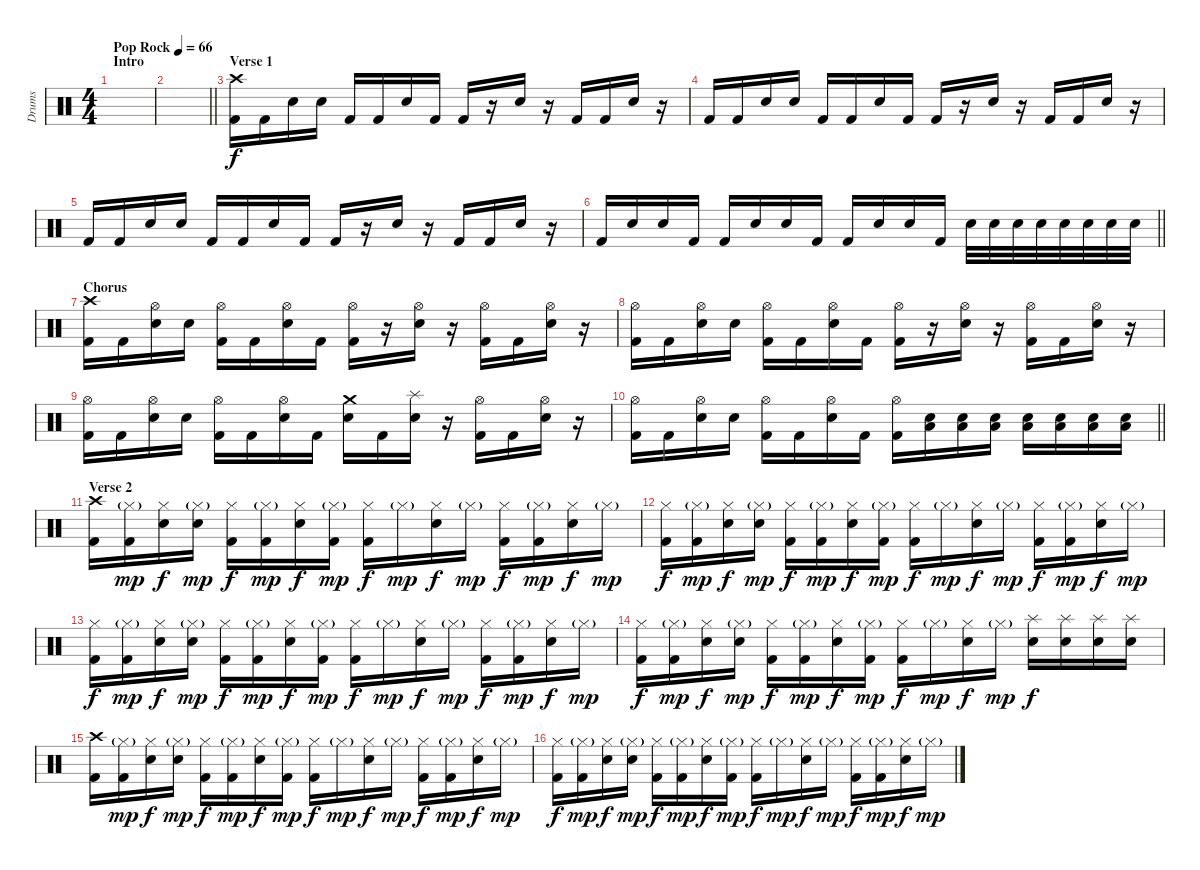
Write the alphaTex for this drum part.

\track ("Drums" "Drums") {instrument percussion}
\staff {score}
\articulation defaults
\ts (4 4)
\section ("" "Intro")
\tempo (66 "Pop Rock")
\clef neutral
\ks c
|
\barLineRight lightlight
|
\section ("" "Verse 1")
("Crash high (hit)" "Kick (hit) 2").16 "Kick (hit) 2".16 "Snare (hit) 2".16 "Snare (hit) 2".16 "Kick (hit) 2".16 "Kick (hit) 2".16 "Snare (hit) 2".16 "Kick (hit) 2".16 "Kick (hit) 2".16 r.16 "Snare (hit) 2".16 r.16 "Kick (hit) 2".16 "Kick (hit) 2".16 "Snare (hit) 2".16 r.16 |
"Kick (hit) 2".16 "Kick (hit) 2".16 "Snare (hit) 2".16 "Snare (hit) 2".16 "Kick (hit) 2".16 "Kick (hit) 2".16 "Snare (hit) 2".16 "Kick (hit) 2".16 "Kick (hit) 2".16 r.16 "Snare (hit) 2".16 r.16 "Kick (hit) 2".16 "Kick (hit) 2".16 "Snare (hit) 2".16 r.16 |
"Kick (hit) 2".16 "Kick (hit) 2".16 "Snare (hit) 2".16 "Snare (hit) 2".16 "Kick (hit) 2".16 "Kick (hit) 2".16 "Snare (hit) 2".16 "Kick (hit) 2".16 "Kick (hit) 2".16 r.16 "Snare (hit) 2".16 r.16 "Kick (hit) 2".16 "Kick (hit) 2".16 "Snare (hit) 2".16 r.16 |
\barLineRight lightlight "Kick (hit) 2".16 "Snare (hit) 2".16 "Snare (hit) 2".16 "Kick (hit) 2".16 "Kick (hit) 2".16 "Snare (hit) 2".16 "Snare (hit) 2".16 "Kick (hit) 2".16 "Kick (hit) 2".16 "Snare (hit) 2".16 "Snare (hit) 2".16 "Kick (hit) 2".16 "Snare (hit) 2".32 "Snare (hit) 2".32 "Snare (hit) 2".32 "Snare (hit) 2".32 "Snare (hit) 2".32 "Snare (hit) 2".32 "Snare (hit) 2".32 "Snare (hit) 2".32
|
\section ("" "Chorus")
("Crash high (hit)" "Kick (hit) 2").16 "Kick (hit) 2".16 ("Hi-Hat (open)" "Snare (hit) 2").16 "Snare (hit) 2".16 ("Hi-Hat (open)" "Kick (hit) 2").16 "Kick (hit) 2".16 ("Hi-Hat (open)" "Snare (hit) 2").16 "Kick (hit) 2".16 ("Hi-Hat (open)" "Kick (hit) 2").16 r.16 ("Hi-Hat (open)" "Snare (hit) 2").16 r.16 ("Hi-Hat (open)" "Kick (hit) 2").16 "Kick (hit) 2".16 ("Hi-Hat (open)" "Snare (hit) 2").16 r.16 |
("Hi-Hat (open)" "Kick (hit) 2").16 "Kick (hit) 2".16 ("Hi-Hat (open)" "Snare (hit) 2").16 "Snare (hit) 2".16 ("Hi-Hat (open)" "Kick (hit) 2").16 "Kick (hit) 2".16 ("Hi-Hat (open)" "Snare (hit) 2").16 "Kick (hit) 2".16 ("Hi-Hat (open)" "Kick (hit) 2").16 r.16 ("Hi-Hat (open)" "Snare (hit) 2").16 r.16 ("Hi-Hat (open)" "Kick (hit) 2").16 "Kick (hit) 2".16 ("Hi-Hat (open)" "Snare (hit) 2").16 r.16 |
("Hi-Hat (open)" "Kick (hit) 2").16 "Kick (hit) 2".16 ("Hi-Hat (open)" "Snare (hit) 2").16 "Snare (hit) 2".16 ("Hi-Hat (open)" "Kick (hit) 2").16 "Kick (hit) 2".16 ("Hi-Hat (open)" "Snare (hit) 2").16 "Kick (hit) 2".16 ("Crash medium (hit)" "Snare (hit) 2").16 "Kick (hit) 2".16 ("Splash (hit)" "Snare (hit) 2").16 r.16 ("Hi-Hat (open)" "Kick (hit) 2").16 "Kick (hit) 2".16 ("Hi-Hat (open)" "Snare (hit) 2").16 r.16 |
\barLineRight lightlight
("Hi-Hat (open)" "Kick (hit) 2").16 "Kick (hit) 2".16 ("Hi-Hat (open)" "Snare (hit) 2").16 "Snare (hit) 2".16 ("Hi-Hat (open)" "Kick (hit) 2").16 "Kick (hit) 2".16 ("Hi-Hat (open)" "Snare (hit) 2").16 "Kick (hit) 2".16 ("Hi-Hat (open)" "Kick (hit) 2").16 ("Low Tom (hit)" "Snare (hit) 2").16 ("Low Tom (hit)" "Snare (hit) 2").16 ("Low Tom (hit)" "Snare (hit) 2").16 ("Low Tom (hit)" "Snare (hit) 2").16 ("Low Tom (hit)" "Snare (hit) 2").16 ("Low Tom (hit)" "Snare (hit) 2").16 ("Low Tom (hit)" "Snare (hit) 2").16 |
\section ("" "Verse 2")
("Crash high (hit)" "Kick (hit) 2").16 ("Hi-Hat (closed)"{g} "Kick (hit) 2").16{dy mp} ("Hi-Hat (closed)" "Snare (hit) 2").16{dy f} ("Hi-Hat (closed)"{g} "Snare (hit) 2").16{dy mp} ("Hi-Hat (closed)" "Kick (hit) 2").16{dy f} ("Hi-Hat (closed)"{g} "Kick (hit) 2").16{dy mp} ("Hi-Hat (closed)" "Snare (hit) 2").16{dy f} ("Hi-Hat (closed)"{g} "Kick (hit) 2").16{dy mp} ("Hi-Hat (closed)" "Kick (hit) 2").16{dy f} "Hi-Hat (closed)"{g}.16{dy mp} ("Hi-Hat (closed)" "Snare (hit) 2").16{dy f} "Hi-Hat (closed)"{g}.16{dy mp} ("Hi-Hat (closed)" "Kick (hit) 2").16{dy f} ("Hi-Hat (closed)"{g} "Kick (hit) 2").16{dy mp} ("Hi-Hat (closed)" "Snare (hit) 2").16{dy f} "Hi-Hat (closed)"{g}.16{dy mp} |
("Hi-Hat (closed)" "Kick (hit) 2").16{dy f} ("Hi-Hat (closed)"{g} "Kick (hit) 2").16{dy mp} ("Hi-Hat (closed)" "Snare (hit) 2").16{dy f} ("Hi-Hat (closed)"{g} "Snare (hit) 2").16{dy mp} ("Hi-Hat (closed)" "Kick (hit) 2").16{dy f} ("Hi-Hat (closed)"{g} "Kick (hit) 2").16{dy mp} ("Hi-Hat (closed)" "Snare (hit) 2").16{dy f} ("Hi-Hat (closed)"{g} "Kick (hit) 2").16{dy mp} ("Hi-Hat (closed)" "Kick (hit) 2").16{dy f} "Hi-Hat (closed)"{g}.16{dy mp} ("Hi-Hat (closed)" "Snare (hit) 2").16{dy f} "Hi-Hat (closed)"{g}.16{dy mp} ("Hi-Hat (closed)" "Kick (hit) 2").16{dy f} ("Hi-Hat (closed)"{g} "Kick (hit) 2").16{dy mp} ("Hi-Hat (closed)" "Snare (hit) 2").16{dy f} "Hi-Hat (closed)"{g}.16{dy mp} |
("Hi-Hat (closed)" "Kick (hit) 2").16{dy f} ("Hi-Hat (closed)"{g} "Kick (hit) 2").16{dy mp} ("Hi-Hat (closed)" "Snare (hit) 2").16{dy f} ("Hi-Hat (closed)"{g} "Snare (hit) 2").16{dy mp} ("Hi-Hat (closed)" "Kick (hit) 2").16{dy f} ("Hi-Hat (closed)"{g} "Kick (hit) 2").16{dy mp} ("Hi-Hat (closed)" "Snare (hit) 2").16{dy f} ("Hi-Hat (closed)"{g} "Kick (hit) 2").16{dy mp} ("Hi-Hat (closed)" "Kick (hit) 2").16{dy f} "Hi-Hat (closed)"{g}.16{dy mp} ("Hi-Hat (closed)" "Snare (hit) 2").16{dy f} "Hi-Hat (closed)"{g}.16{dy mp} ("Hi-Hat (closed)" "Kick (hit) 2").16{dy f} ("Hi-Hat (closed)"{g} "Kick (hit) 2").16{dy mp} ("Hi-Hat (closed)" "Snare (hit) 2").16{dy f} "Hi-Hat (closed)"{g}.16{dy mp} |
("Hi-Hat (closed)" "Kick (hit) 2").16{dy f} ("Hi-Hat (closed)"{g} "Kick (hit) 2").16{dy mp} ("Hi-Hat (closed)" "Snare (hit) 2").16{dy f} ("Hi-Hat (closed)"{g} "Snare (hit) 2").16{dy mp} ("Hi-Hat (closed)" "Kick (hit) 2").16{dy f} ("Hi-Hat (closed)"{g} "Kick (hit) 2").16{dy mp} ("Hi-Hat (closed)" "Snare (hit) 2").16{dy f} ("Hi-Hat (closed)"{g} "Kick (hit) 2").16{dy mp} ("Hi-Hat (closed)" "Kick (hit) 2").16{dy f} "Hi-Hat (closed)"{g}.16{dy mp} ("Hi-Hat (closed)" "Snare (hit) 2").16{dy f} "Hi-Hat (closed)"{g}.16{dy mp} ("Splash (hit)" "Snare (hit) 2").16{dy f} ("Splash (hit)" "Snare (hit) 2").16 ("Splash (hit)" "Snare (hit) 2").16 ("Splash (hit)" "Snare (hit) 2").16 |
("Crash high (hit)" "Kick (hit) 2").16 ("Hi-Hat (closed)"{g} "Kick (hit) 2").16{dy mp} ("Hi-Hat (closed)" "Snare (hit) 2").16{dy f} ("Hi-Hat (closed)"{g} "Snare (hit) 2").16{dy mp} ("Hi-Hat (closed)" "Kick (hit) 2").16{dy f} ("Hi-Hat (closed)"{g} "Kick (hit) 2").16{dy mp} ("Hi-Hat (closed)" "Snare (hit) 2").16{dy f} ("Hi-Hat (closed)"{g} "Kick (hit) 2").16{dy mp} ("Hi-Hat (closed)" "Kick (hit) 2").16{dy f} "Hi-Hat (closed)"{g}.16{dy mp} ("Hi-Hat (closed)" "Snare (hit) 2").16{dy f} "Hi-Hat (closed)"{g}.16{dy mp} ("Hi-Hat (closed)" "Kick (hit) 2").16{dy f} ("Hi-Hat (closed)"{g} "Kick (hit) 2").16{dy mp} ("Hi-Hat (closed)" "Snare (hit) 2").16{dy f} "Hi-Hat (closed)"{g}.16{dy mp} |
("Hi-Hat (closed)" "Kick (hit) 2").16{dy f} ("Hi-Hat (closed)"{g} "Kick (hit) 2").16{dy mp} ("Hi-Hat (closed)" "Snare (hit) 2").16{dy f} ("Hi-Hat (closed)"{g} "Snare (hit) 2").16{dy mp} ("Hi-Hat (closed)" "Kick (hit) 2").16{dy f} ("Hi-Hat (closed)"{g} "Kick (hit) 2").16{dy mp} ("Hi-Hat (closed)" "Snare (hit) 2").16{dy f} ("Hi-Hat (closed)"{g} "Kick (hit) 2").16{dy mp} ("Hi-Hat (closed)" "Kick (hit) 2").16{dy f} "Hi-Hat (closed)"{g}.16{dy mp} ("Hi-Hat (closed)" "Snare (hit) 2").16{dy f} "Hi-Hat (closed)"{g}.16{dy mp} ("Hi-Hat (closed)" "Kick (hit) 2").16{dy f} ("Hi-Hat (closed)"{g} "Kick (hit) 2").16{dy mp} ("Hi-Hat (closed)" "Snare (hit) 2").16{dy f} "Hi-Hat (closed)"{g}.16{dy mp}
